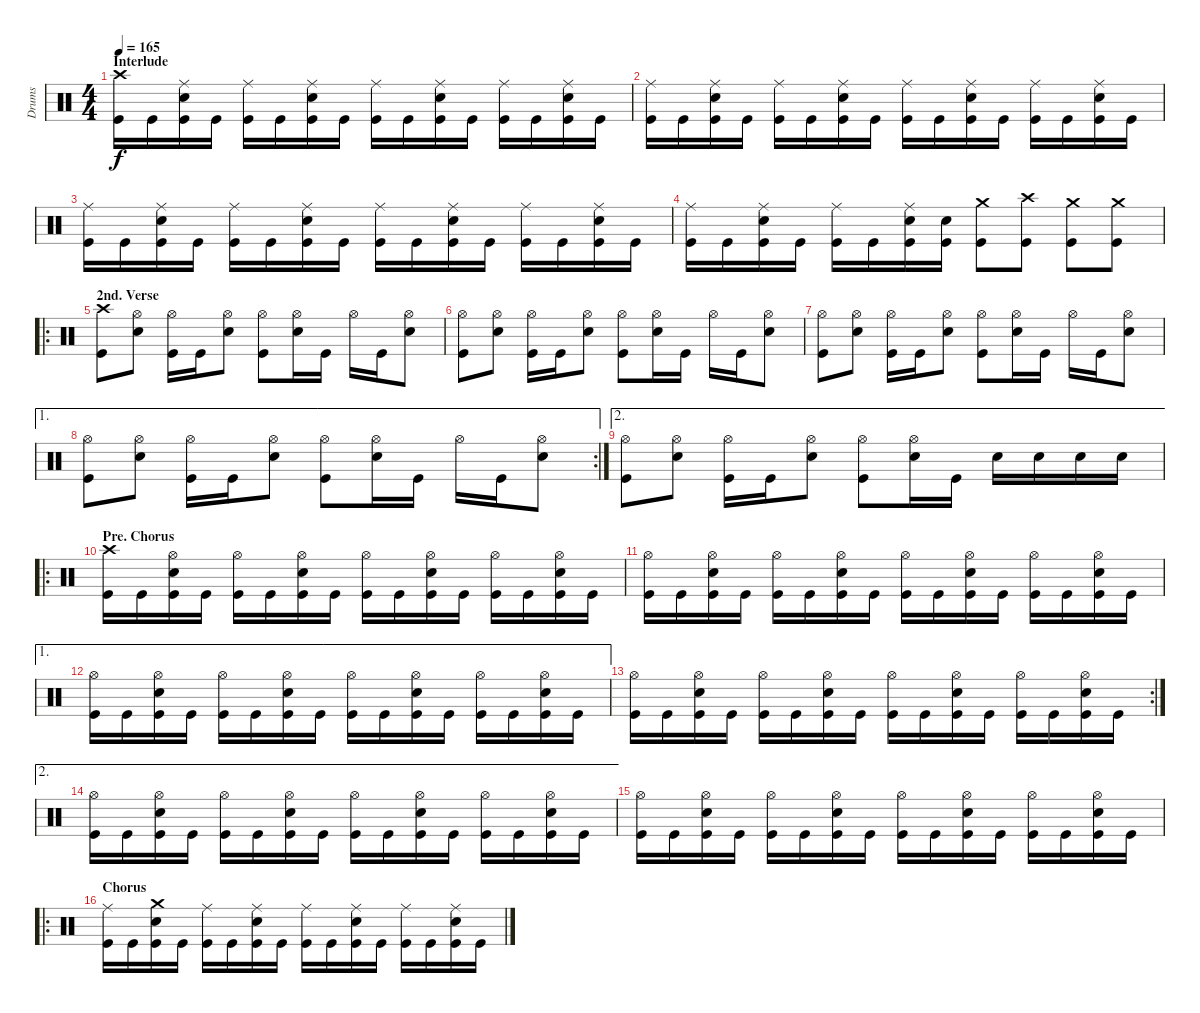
\track ("Drums" "Drums") {instrument percussion}
\staff {score}
\articulation defaults
\ts (4 4)
\section ("" "Interlude")
\tempo 165
\clef neutral
\ks c
("Crash high (hit)" "Kick (hit)").16{dy f} "Kick (hit)".16 ("Ride (middle)" "Snare (hit) 2" "Kick (hit)").16 "Kick (hit)".16 ("Ride (middle)" "Kick (hit)").16 "Kick (hit)".16 ("Ride (middle)" "Snare (hit) 2" "Kick (hit)").16 "Kick (hit)".16 ("Ride (middle)" "Kick (hit)").16 "Kick (hit)".16 ("Ride (middle)" "Snare (hit) 2" "Kick (hit)").16 "Kick (hit)".16 ("Ride (middle)" "Kick (hit)").16 "Kick (hit)".16 ("Ride (middle)" "Snare (hit) 2" "Kick (hit)").16 "Kick (hit)".16 |
("Ride (middle)" "Kick (hit)").16 "Kick (hit)".16 ("Ride (middle)" "Snare (hit) 2" "Kick (hit)").16 "Kick (hit)".16 ("Ride (middle)" "Kick (hit)").16 "Kick (hit)".16 ("Ride (middle)" "Snare (hit) 2" "Kick (hit)").16 "Kick (hit)".16 ("Ride (middle)" "Kick (hit)").16 "Kick (hit)".16 ("Ride (middle)" "Snare (hit) 2" "Kick (hit)").16 "Kick (hit)".16 ("Ride (middle)" "Kick (hit)").16 "Kick (hit)".16 ("Ride (middle)" "Snare (hit) 2" "Kick (hit)").16 "Kick (hit)".16 |
("Ride (middle)" "Kick (hit)").16 "Kick (hit)".16 ("Ride (middle)" "Snare (hit) 2" "Kick (hit)").16 "Kick (hit)".16 ("Ride (middle)" "Kick (hit)").16 "Kick (hit)".16 ("Ride (middle)" "Snare (hit) 2" "Kick (hit)").16 "Kick (hit)".16 ("Ride (middle)" "Kick (hit)").16 "Kick (hit)".16 ("Ride (middle)" "Snare (hit) 2" "Kick (hit)").16 "Kick (hit)".16 ("Ride (middle)" "Kick (hit)").16 "Kick (hit)".16 ("Ride (middle)" "Snare (hit) 2" "Kick (hit)").16 "Kick (hit)".16 |
("Ride (middle)" "Kick (hit)").16 "Kick (hit)".16 ("Ride (middle)" "Snare (hit) 2" "Kick (hit)").16 "Kick (hit)".16 ("Ride (middle)" "Kick (hit)").16 "Kick (hit)".16 ("Ride (middle)" "Snare (hit) 2" "Kick (hit)").16 ("Snare (hit) 2" "Kick (hit)").16 ("Crash medium (hit)" "Kick (hit)").8 ("Crash high (hit)" "Kick (hit)").8 ("Crash medium (hit)" "Kick (hit)").8 ("Crash medium (hit)" "Kick (hit)").8 |
\ro
\section ("" "2nd. Verse")
("Crash high (hit)" "Kick (hit)").8 ("Hi-Hat (open)" "Snare (hit) 2").8 ("Hi-Hat (open)" "Kick (hit)").16 "Kick (hit)".16 ("Hi-Hat (open)" "Snare (hit) 2").8 ("Hi-Hat (open)" "Kick (hit)").8 ("Hi-Hat (open)" "Snare (hit) 2").16 "Kick (hit)".16 "Hi-Hat (open)".16 "Kick (hit)".16 ("Hi-Hat (open)" "Snare (hit) 2").8 |
("Hi-Hat (open)" "Kick (hit)").8 ("Hi-Hat (open)" "Snare (hit) 2").8 ("Hi-Hat (open)" "Kick (hit)").16 "Kick (hit)".16 ("Hi-Hat (open)" "Snare (hit) 2").8 ("Hi-Hat (open)" "Kick (hit)").8 ("Hi-Hat (open)" "Snare (hit) 2").16 "Kick (hit)".16 "Hi-Hat (open)".16 "Kick (hit)".16 ("Hi-Hat (open)" "Snare (hit) 2").8 |
("Hi-Hat (open)" "Kick (hit)").8 ("Hi-Hat (open)" "Snare (hit) 2").8 ("Hi-Hat (open)" "Kick (hit)").16 "Kick (hit)".16 ("Hi-Hat (open)" "Snare (hit) 2").8 ("Hi-Hat (open)" "Kick (hit)").8 ("Hi-Hat (open)" "Snare (hit) 2").16 "Kick (hit)".16 "Hi-Hat (open)".16 "Kick (hit)".16 ("Hi-Hat (open)" "Snare (hit) 2").8 |
\ae 1
\rc 2
("Hi-Hat (open)" "Kick (hit)").8 ("Hi-Hat (open)" "Snare (hit) 2").8 ("Hi-Hat (open)" "Kick (hit)").16 "Kick (hit)".16 ("Hi-Hat (open)" "Snare (hit) 2").8 ("Hi-Hat (open)" "Kick (hit)").8 ("Hi-Hat (open)" "Snare (hit) 2").16 "Kick (hit)".16 "Hi-Hat (open)".16 "Kick (hit)".16 ("Hi-Hat (open)" "Snare (hit) 2").8 |
\ae 2
("Hi-Hat (open)" "Kick (hit)").8 ("Hi-Hat (open)" "Snare (hit) 2").8 ("Hi-Hat (open)" "Kick (hit)").16 "Kick (hit)".16 ("Hi-Hat (open)" "Snare (hit) 2").8 ("Hi-Hat (open)" "Kick (hit)").8 ("Hi-Hat (open)" "Snare (hit) 2").16 "Kick (hit)".16 "Snare (hit) 2".16 "Snare (hit) 2".16 "Snare (hit) 2".16 "Snare (hit) 2".16 |
\ro
\section ("" "Pre. Chorus")
("Crash high (hit)" "Kick (hit)").16 "Kick (hit)".16 ("Hi-Hat (open)" "Snare (hit) 2" "Kick (hit)").16 "Kick (hit)".16 ("Hi-Hat (open)" "Kick (hit)").16 "Kick (hit)".16 ("Hi-Hat (open)" "Snare (hit) 2" "Kick (hit)").16 "Kick (hit)".16 ("Hi-Hat (open)" "Kick (hit)").16 "Kick (hit)".16 ("Hi-Hat (open)" "Snare (hit) 2" "Kick (hit)").16 "Kick (hit)".16 ("Hi-Hat (open)" "Kick (hit)").16 "Kick (hit)".16 ("Hi-Hat (open)" "Snare (hit) 2" "Kick (hit)").16 "Kick (hit)".16 |
("Hi-Hat (open)" "Kick (hit)").16 "Kick (hit)".16 ("Hi-Hat (open)" "Snare (hit) 2" "Kick (hit)").16 "Kick (hit)".16 ("Hi-Hat (open)" "Kick (hit)").16 "Kick (hit)".16 ("Hi-Hat (open)" "Snare (hit) 2" "Kick (hit)").16 "Kick (hit)".16 ("Hi-Hat (open)" "Kick (hit)").16 "Kick (hit)".16 ("Hi-Hat (open)" "Snare (hit) 2" "Kick (hit)").16 "Kick (hit)".16 ("Hi-Hat (open)" "Kick (hit)").16 "Kick (hit)".16 ("Hi-Hat (open)" "Snare (hit) 2" "Kick (hit)").16 "Kick (hit)".16 |
\ae 1
("Hi-Hat (open)" "Kick (hit)").16 "Kick (hit)".16 ("Hi-Hat (open)" "Snare (hit) 2" "Kick (hit)").16 "Kick (hit)".16 ("Hi-Hat (open)" "Kick (hit)").16 "Kick (hit)".16 ("Hi-Hat (open)" "Snare (hit) 2" "Kick (hit)").16 "Kick (hit)".16 ("Hi-Hat (open)" "Kick (hit)").16 "Kick (hit)".16 ("Hi-Hat (open)" "Snare (hit) 2" "Kick (hit)").16 "Kick (hit)".16 ("Hi-Hat (open)" "Kick (hit)").16 "Kick (hit)".16 ("Hi-Hat (open)" "Snare (hit) 2" "Kick (hit)").16 "Kick (hit)".16 |
\rc 2
("Hi-Hat (open)" "Kick (hit)").16 "Kick (hit)".16 ("Hi-Hat (open)" "Snare (hit) 2" "Kick (hit)").16 "Kick (hit)".16 ("Hi-Hat (open)" "Kick (hit)").16 "Kick (hit)".16 ("Hi-Hat (open)" "Snare (hit) 2" "Kick (hit)").16 "Kick (hit)".16 ("Hi-Hat (open)" "Kick (hit)").16 "Kick (hit)".16 ("Hi-Hat (open)" "Snare (hit) 2" "Kick (hit)").16 "Kick (hit)".16 ("Hi-Hat (open)" "Kick (hit)").16 "Kick (hit)".16 ("Hi-Hat (open)" "Snare (hit) 2" "Kick (hit)").16 "Kick (hit)".16 |
\ae 2
("Hi-Hat (open)" "Kick (hit)").16 "Kick (hit)".16 ("Hi-Hat (open)" "Snare (hit) 2" "Kick (hit)").16 "Kick (hit)".16 ("Hi-Hat (open)" "Kick (hit)").16 "Kick (hit)".16 ("Hi-Hat (open)" "Snare (hit) 2" "Kick (hit)").16 "Kick (hit)".16 ("Hi-Hat (open)" "Kick (hit)").16 "Kick (hit)".16 ("Hi-Hat (open)" "Snare (hit) 2" "Kick (hit)").16 "Kick (hit)".16 ("Hi-Hat (open)" "Kick (hit)").16 "Kick (hit)".16 ("Hi-Hat (open)" "Snare (hit) 2" "Kick (hit)").16 "Kick (hit)".16 |
("Hi-Hat (open)" "Kick (hit)").16 "Kick (hit)".16 ("Hi-Hat (open)" "Snare (hit) 2" "Kick (hit)").16 "Kick (hit)".16 ("Hi-Hat (open)" "Kick (hit)").16 "Kick (hit)".16 ("Hi-Hat (open)" "Snare (hit) 2" "Kick (hit)").16 "Kick (hit)".16 ("Hi-Hat (open)" "Kick (hit)").16 "Kick (hit)".16 ("Hi-Hat (open)" "Snare (hit) 2" "Kick (hit)").16 "Kick (hit)".16 ("Hi-Hat (open)" "Kick (hit)").16 "Kick (hit)".16 ("Hi-Hat (open)" "Snare (hit) 2" "Kick (hit)").16 "Kick (hit)".16 |
\ro
\section ("" "Chorus")
("Ride (middle)" "Kick (hit)").16 "Kick (hit)".16 ("Crash medium (hit)" "Snare (hit) 2" "Kick (hit)").16 "Kick (hit)".16 ("Ride (middle)" "Kick (hit)").16 "Kick (hit)".16 ("Ride (middle)" "Snare (hit) 2" "Kick (hit)").16 "Kick (hit)".16 ("Ride (middle)" "Kick (hit)").16 "Kick (hit)".16 ("Ride (middle)" "Snare (hit) 2" "Kick (hit)").16 "Kick (hit)".16 ("Ride (middle)" "Kick (hit)").16 "Kick (hit)".16 ("Ride (middle)" "Snare (hit) 2" "Kick (hit)").16 "Kick (hit)".16
